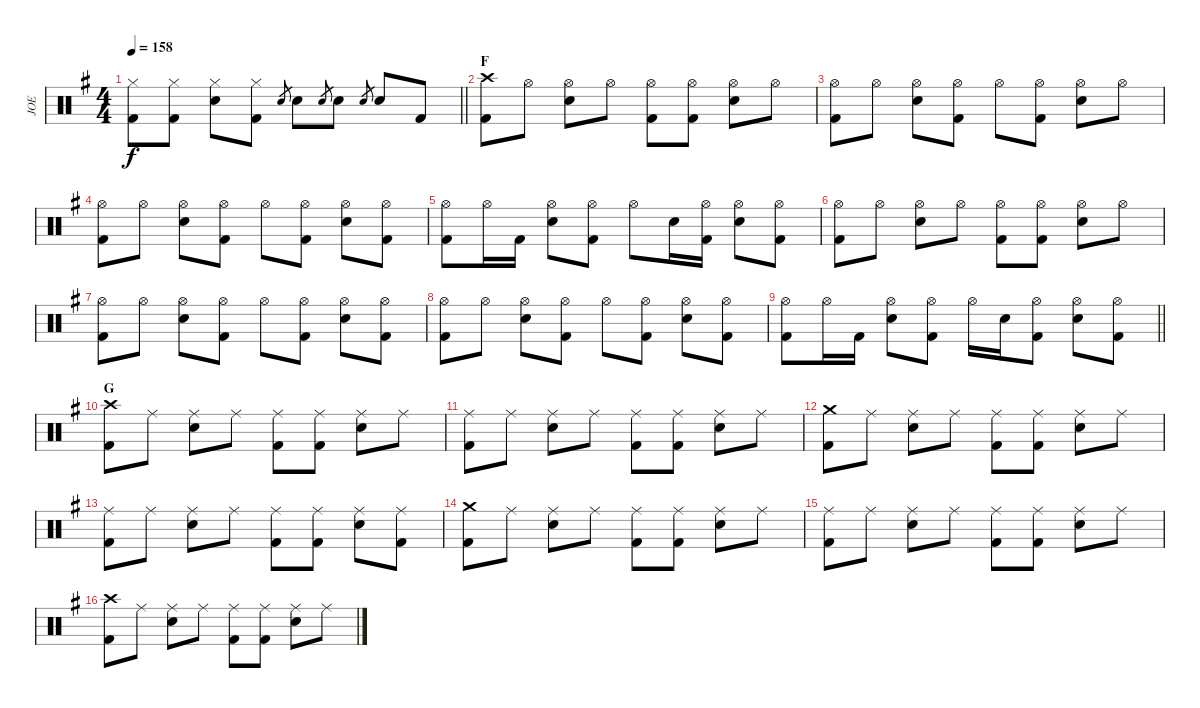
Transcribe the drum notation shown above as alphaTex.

\track ("JOE" "JOE") {instrument percussion}
\staff {score}
\articulation defaults
\ts (4 4)
\tempo 158
\clef neutral
\barLineRight lightlight
\ks g
("Hi-Hat (closed)" "Kick (hit) 2").8{dy f} ("Hi-Hat (closed)" "Kick (hit) 2").8 ("Hi-Hat (closed)" "Snare (hit) 2").8 ("Hi-Hat (closed)" "Kick (hit) 2").8 "Snare (hit) 2".8{gr} "Snare (hit) 2".8 "Snare (hit) 2".8{gr} "Snare (hit) 2".8 "Snare (hit) 2".8{gr} "Snare (hit) 2".8 "Kick (hit) 2".8 |
\section ("" "F")
("Crash high (hit)" "Kick (hit) 2").8 "Hi-Hat (open)".8 ("Hi-Hat (open)" "Snare (hit) 2").8 "Hi-Hat (open)".8 ("Hi-Hat (open)" "Kick (hit) 2").8 ("Hi-Hat (open)" "Kick (hit) 2").8 ("Hi-Hat (open)" "Snare (hit) 2").8 "Hi-Hat (open)".8 |
("Hi-Hat (open)" "Kick (hit) 2").8 "Hi-Hat (open)".8 ("Hi-Hat (open)" "Snare (hit) 2").8 ("Hi-Hat (open)" "Kick (hit) 2").8 "Hi-Hat (open)".8 ("Hi-Hat (open)" "Kick (hit) 2").8 ("Hi-Hat (open)" "Snare (hit) 2").8 "Hi-Hat (open)".8 |
("Hi-Hat (open)" "Kick (hit) 2").8 "Hi-Hat (open)".8 ("Hi-Hat (open)" "Snare (hit) 2").8 ("Hi-Hat (open)" "Kick (hit) 2").8 "Hi-Hat (open)".8 ("Hi-Hat (open)" "Kick (hit) 2").8 ("Hi-Hat (open)" "Snare (hit) 2").8 ("Hi-Hat (open)" "Kick (hit) 2").8 |
("Hi-Hat (open)" "Kick (hit) 2").8 "Hi-Hat (open)".16 "Kick (hit) 2".16 ("Hi-Hat (open)" "Snare (hit) 2").8 ("Hi-Hat (open)" "Kick (hit) 2").8 "Hi-Hat (open)".8 "Snare (hit) 2".16 ("Hi-Hat (open)" "Kick (hit) 2").16 ("Hi-Hat (open)" "Snare (hit) 2").8 ("Hi-Hat (open)" "Kick (hit) 2").8 |
("Hi-Hat (open)" "Kick (hit) 2").8 "Hi-Hat (open)".8 ("Hi-Hat (open)" "Snare (hit) 2").8 "Hi-Hat (open)".8 ("Hi-Hat (open)" "Kick (hit) 2").8 ("Hi-Hat (open)" "Kick (hit) 2").8 ("Hi-Hat (open)" "Snare (hit) 2").8 "Hi-Hat (open)".8 |
("Hi-Hat (open)" "Kick (hit) 2").8 "Hi-Hat (open)".8 ("Hi-Hat (open)" "Snare (hit) 2").8 ("Hi-Hat (open)" "Kick (hit) 2").8 "Hi-Hat (open)".8 ("Hi-Hat (open)" "Kick (hit) 2").8 ("Hi-Hat (open)" "Snare (hit) 2").8 ("Hi-Hat (open)" "Kick (hit) 2").8 |
("Hi-Hat (open)" "Kick (hit) 2").8 "Hi-Hat (open)".8 ("Hi-Hat (open)" "Snare (hit) 2").8 ("Hi-Hat (open)" "Kick (hit) 2").8 "Hi-Hat (open)".8 ("Hi-Hat (open)" "Kick (hit) 2").8 ("Hi-Hat (open)" "Snare (hit) 2").8 ("Hi-Hat (open)" "Kick (hit) 2").8 |
\barLineRight lightlight
("Hi-Hat (open)" "Kick (hit) 2").8 "Hi-Hat (open)".16 "Kick (hit) 2".16 ("Hi-Hat (open)" "Snare (hit) 2").8 ("Hi-Hat (open)" "Kick (hit) 2").8 "Hi-Hat (open)".16 "Snare (hit) 2".16 ("Hi-Hat (open)" "Kick (hit) 2").8 ("Hi-Hat (open)" "Snare (hit) 2").8 ("Hi-Hat (open)" "Kick (hit) 2").8 |
\section ("" "G")
("Crash high (hit)" "Kick (hit) 2").8 "Ride (middle)".8 ("Ride (middle)" "Snare (hit) 2").8 "Ride (middle)".8 ("Ride (middle)" "Kick (hit) 2").8 ("Ride (middle)" "Kick (hit) 2").8 ("Ride (middle)" "Snare (hit) 2").8 "Ride (middle)".8 |
("Ride (middle)" "Kick (hit) 2").8 "Ride (middle)".8 ("Ride (middle)" "Snare (hit) 2").8 "Ride (middle)".8 ("Ride (middle)" "Kick (hit) 2").8 ("Ride (middle)" "Kick (hit) 2").8 ("Ride (middle)" "Snare (hit) 2").8 "Ride (middle)".8 |
("Crash medium (hit)" "Kick (hit) 2").8 "Ride (middle)".8 ("Ride (middle)" "Snare (hit) 2").8 "Ride (middle)".8 ("Ride (middle)" "Kick (hit) 2").8 ("Ride (middle)" "Kick (hit) 2").8 ("Ride (middle)" "Snare (hit) 2").8 "Ride (middle)".8 |
("Ride (middle)" "Kick (hit) 2").8 "Ride (middle)".8 ("Ride (middle)" "Snare (hit) 2").8 "Ride (middle)".8 ("Ride (middle)" "Kick (hit) 2").8 ("Ride (middle)" "Kick (hit) 2").8 ("Ride (middle)" "Snare (hit) 2").8 ("Ride (middle)" "Kick (hit) 2").8 |
("Crash medium (hit)" "Kick (hit) 2").8 "Ride (middle)".8 ("Ride (middle)" "Snare (hit) 2").8 "Ride (middle)".8 ("Ride (middle)" "Kick (hit) 2").8 ("Ride (middle)" "Kick (hit) 2").8 ("Ride (middle)" "Snare (hit) 2").8 "Ride (middle)".8 |
("Ride (middle)" "Kick (hit) 2").8 "Ride (middle)".8 ("Ride (middle)" "Snare (hit) 2").8 "Ride (middle)".8 ("Ride (middle)" "Kick (hit) 2").8 ("Ride (middle)" "Kick (hit) 2").8 ("Ride (middle)" "Snare (hit) 2").8 "Ride (middle)".8 |
("Crash high (hit)" "Kick (hit) 2").8 "Ride (middle)".8 ("Ride (middle)" "Snare (hit) 2").8 "Ride (middle)".8 ("Ride (middle)" "Kick (hit) 2").8 ("Ride (middle)" "Kick (hit) 2").8 ("Ride (middle)" "Snare (hit) 2").8 "Ride (middle)".8
